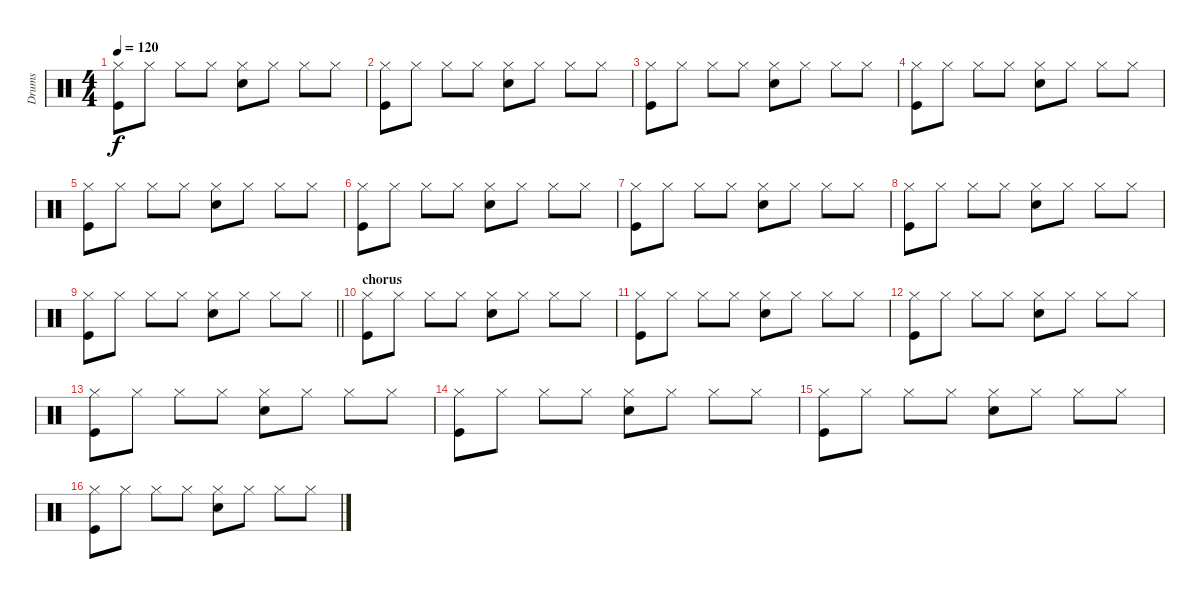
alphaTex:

\track ("Drums" "Drums") {instrument percussion}
\staff {score}
\articulation defaults
\ts (4 4)
\tempo 120
\clef neutral
\ks c
("Hi-Hat (closed)" "Kick (hit)").8{dy f} "Hi-Hat (closed)".8 "Hi-Hat (closed)".8 "Hi-Hat (closed)".8 ("Hi-Hat (closed)" "Snare (hit) 2").8 "Hi-Hat (closed)".8 "Hi-Hat (closed)".8 "Hi-Hat (closed)".8 |
("Hi-Hat (closed)" "Kick (hit)").8 "Hi-Hat (closed)".8 "Hi-Hat (closed)".8 "Hi-Hat (closed)".8 ("Hi-Hat (closed)" "Snare (hit) 2").8 "Hi-Hat (closed)".8 "Hi-Hat (closed)".8 "Hi-Hat (closed)".8 |
("Hi-Hat (closed)" "Kick (hit)").8 "Hi-Hat (closed)".8 "Hi-Hat (closed)".8 "Hi-Hat (closed)".8 ("Hi-Hat (closed)" "Snare (hit) 2").8 "Hi-Hat (closed)".8 "Hi-Hat (closed)".8 "Hi-Hat (closed)".8 |
("Hi-Hat (closed)" "Kick (hit)").8 "Hi-Hat (closed)".8 "Hi-Hat (closed)".8 "Hi-Hat (closed)".8 ("Hi-Hat (closed)" "Snare (hit) 2").8 "Hi-Hat (closed)".8 "Hi-Hat (closed)".8 "Hi-Hat (closed)".8 |
("Hi-Hat (closed)" "Kick (hit)").8 "Hi-Hat (closed)".8 "Hi-Hat (closed)".8 "Hi-Hat (closed)".8 ("Hi-Hat (closed)" "Snare (hit) 2").8 "Hi-Hat (closed)".8 "Hi-Hat (closed)".8 "Hi-Hat (closed)".8 |
("Hi-Hat (closed)" "Kick (hit)").8 "Hi-Hat (closed)".8 "Hi-Hat (closed)".8 "Hi-Hat (closed)".8 ("Hi-Hat (closed)" "Snare (hit) 2").8 "Hi-Hat (closed)".8 "Hi-Hat (closed)".8 "Hi-Hat (closed)".8 |
("Hi-Hat (closed)" "Kick (hit)").8 "Hi-Hat (closed)".8 "Hi-Hat (closed)".8 "Hi-Hat (closed)".8 ("Hi-Hat (closed)" "Snare (hit) 2").8 "Hi-Hat (closed)".8 "Hi-Hat (closed)".8 "Hi-Hat (closed)".8 |
("Hi-Hat (closed)" "Kick (hit)").8 "Hi-Hat (closed)".8 "Hi-Hat (closed)".8 "Hi-Hat (closed)".8 ("Hi-Hat (closed)" "Snare (hit) 2").8 "Hi-Hat (closed)".8 "Hi-Hat (closed)".8 "Hi-Hat (closed)".8 |
\barLineRight lightlight
("Hi-Hat (closed)" "Kick (hit)").8 "Hi-Hat (closed)".8 "Hi-Hat (closed)".8 "Hi-Hat (closed)".8 ("Hi-Hat (closed)" "Snare (hit) 2").8 "Hi-Hat (closed)".8 "Hi-Hat (closed)".8 "Hi-Hat (closed)".8 |
\section ("" "chorus ")
("Hi-Hat (closed)" "Kick (hit)").8 "Hi-Hat (closed)".8 "Hi-Hat (closed)".8 "Hi-Hat (closed)".8 ("Hi-Hat (closed)" "Snare (hit) 2").8 "Hi-Hat (closed)".8 "Hi-Hat (closed)".8 "Hi-Hat (closed)".8 |
("Hi-Hat (closed)" "Kick (hit)").8 "Hi-Hat (closed)".8 "Hi-Hat (closed)".8 "Hi-Hat (closed)".8 ("Hi-Hat (closed)" "Snare (hit) 2").8 "Hi-Hat (closed)".8 "Hi-Hat (closed)".8 "Hi-Hat (closed)".8 |
("Hi-Hat (closed)" "Kick (hit)").8 "Hi-Hat (closed)".8 "Hi-Hat (closed)".8 "Hi-Hat (closed)".8 ("Hi-Hat (closed)" "Snare (hit) 2").8 "Hi-Hat (closed)".8 "Hi-Hat (closed)".8 "Hi-Hat (closed)".8 |
("Hi-Hat (closed)" "Kick (hit)").8 "Hi-Hat (closed)".8 "Hi-Hat (closed)".8 "Hi-Hat (closed)".8 ("Hi-Hat (closed)" "Snare (hit) 2").8 "Hi-Hat (closed)".8 "Hi-Hat (closed)".8 "Hi-Hat (closed)".8 |
("Hi-Hat (closed)" "Kick (hit)").8 "Hi-Hat (closed)".8 "Hi-Hat (closed)".8 "Hi-Hat (closed)".8 ("Hi-Hat (closed)" "Snare (hit) 2").8 "Hi-Hat (closed)".8 "Hi-Hat (closed)".8 "Hi-Hat (closed)".8 |
("Hi-Hat (closed)" "Kick (hit)").8 "Hi-Hat (closed)".8 "Hi-Hat (closed)".8 "Hi-Hat (closed)".8 ("Hi-Hat (closed)" "Snare (hit) 2").8 "Hi-Hat (closed)".8 "Hi-Hat (closed)".8 "Hi-Hat (closed)".8 |
("Hi-Hat (closed)" "Kick (hit)").8 "Hi-Hat (closed)".8 "Hi-Hat (closed)".8 "Hi-Hat (closed)".8 ("Hi-Hat (closed)" "Snare (hit) 2").8 "Hi-Hat (closed)".8 "Hi-Hat (closed)".8 "Hi-Hat (closed)".8
